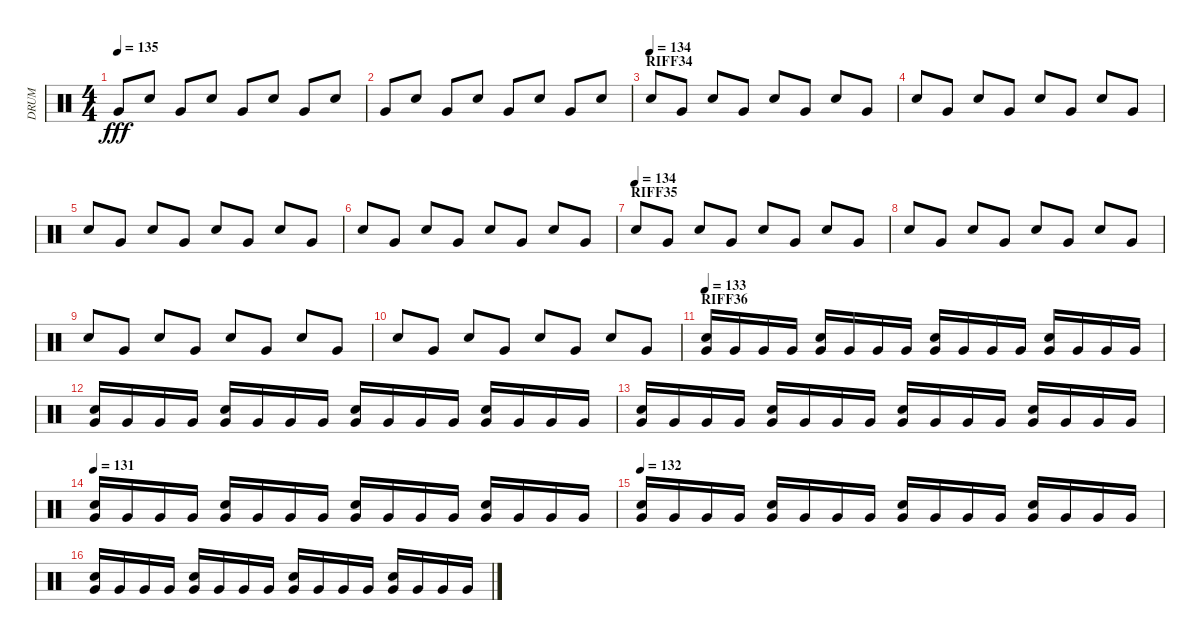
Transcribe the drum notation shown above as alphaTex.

\track ("DRUM" "DRUM") {instrument percussion}
\staff {score}
\articulation defaults
\ts (4 4)
\tempo 135
\clef neutral
\ks c "Very Low Tom (hit)".8{dy fff} "Electric Snare (hit)".8 "Very Low Tom (hit)".8 "Electric Snare (hit)".8 "Very Low Tom (hit)".8 "Electric Snare (hit)".8 "Very Low Tom (hit)".8 "Electric Snare (hit)".8
|
"Very Low Tom (hit)".8 "Electric Snare (hit)".8 "Very Low Tom (hit)".8 "Electric Snare (hit)".8 "Very Low Tom (hit)".8 "Electric Snare (hit)".8 "Very Low Tom (hit)".8 "Electric Snare (hit)".8 |
\section ("" "RIFF34")
\tempo (134)
"Electric Snare (hit)".8 "Very Low Tom (hit)".8 "Electric Snare (hit)".8 "Very Low Tom (hit)".8 "Electric Snare (hit)".8 "Very Low Tom (hit)".8 "Electric Snare (hit)".8 "Very Low Tom (hit)".8 |
"Electric Snare (hit)".8 "Very Low Tom (hit)".8 "Electric Snare (hit)".8 "Very Low Tom (hit)".8 "Electric Snare (hit)".8 "Very Low Tom (hit)".8 "Electric Snare (hit)".8 "Very Low Tom (hit)".8 |
"Electric Snare (hit)".8 "Very Low Tom (hit)".8 "Electric Snare (hit)".8 "Very Low Tom (hit)".8 "Electric Snare (hit)".8 "Very Low Tom (hit)".8 "Electric Snare (hit)".8 "Very Low Tom (hit)".8 |
"Electric Snare (hit)".8 "Very Low Tom (hit)".8 "Electric Snare (hit)".8 "Very Low Tom (hit)".8 "Electric Snare (hit)".8 "Very Low Tom (hit)".8 "Electric Snare (hit)".8 "Very Low Tom (hit)".8 |
\section ("" "RIFF35")
\tempo (134)
"Electric Snare (hit)".8 "Very Low Tom (hit)".8 "Electric Snare (hit)".8 "Very Low Tom (hit)".8 "Electric Snare (hit)".8 "Very Low Tom (hit)".8 "Electric Snare (hit)".8 "Very Low Tom (hit)".8 |
"Electric Snare (hit)".8 "Very Low Tom (hit)".8 "Electric Snare (hit)".8 "Very Low Tom (hit)".8 "Electric Snare (hit)".8 "Very Low Tom (hit)".8 "Electric Snare (hit)".8 "Very Low Tom (hit)".8 |
"Electric Snare (hit)".8 "Very Low Tom (hit)".8 "Electric Snare (hit)".8 "Very Low Tom (hit)".8 "Electric Snare (hit)".8 "Very Low Tom (hit)".8 "Electric Snare (hit)".8 "Very Low Tom (hit)".8 |
"Electric Snare (hit)".8 "Very Low Tom (hit)".8 "Electric Snare (hit)".8 "Very Low Tom (hit)".8 "Electric Snare (hit)".8 "Very Low Tom (hit)".8 "Electric Snare (hit)".8 "Very Low Tom (hit)".8 |
\section ("" "RIFF36")
\tempo 133
("Very Low Tom (hit)" "Electric Snare (hit)").16 "Very Low Tom (hit)".16 "Very Low Tom (hit)".16 "Very Low Tom (hit)".16 ("Very Low Tom (hit)" "Electric Snare (hit)").16 "Very Low Tom (hit)".16 "Very Low Tom (hit)".16 "Very Low Tom (hit)".16 ("Very Low Tom (hit)" "Electric Snare (hit)").16 "Very Low Tom (hit)".16 "Very Low Tom (hit)".16 "Very Low Tom (hit)".16 ("Very Low Tom (hit)" "Electric Snare (hit)").16 "Very Low Tom (hit)".16 "Very Low Tom (hit)".16 "Very Low Tom (hit)".16 |
("Very Low Tom (hit)" "Electric Snare (hit)").16 "Very Low Tom (hit)".16 "Very Low Tom (hit)".16 "Very Low Tom (hit)".16 ("Very Low Tom (hit)" "Electric Snare (hit)").16 "Very Low Tom (hit)".16 "Very Low Tom (hit)".16 "Very Low Tom (hit)".16 ("Very Low Tom (hit)" "Electric Snare (hit)").16 "Very Low Tom (hit)".16 "Very Low Tom (hit)".16 "Very Low Tom (hit)".16 ("Very Low Tom (hit)" "Electric Snare (hit)").16 "Very Low Tom (hit)".16 "Very Low Tom (hit)".16 "Very Low Tom (hit)".16 |
("Very Low Tom (hit)" "Electric Snare (hit)").16 "Very Low Tom (hit)".16 "Very Low Tom (hit)".16 "Very Low Tom (hit)".16 ("Very Low Tom (hit)" "Electric Snare (hit)").16 "Very Low Tom (hit)".16 "Very Low Tom (hit)".16 "Very Low Tom (hit)".16 ("Very Low Tom (hit)" "Electric Snare (hit)").16 "Very Low Tom (hit)".16 "Very Low Tom (hit)".16 "Very Low Tom (hit)".16 ("Very Low Tom (hit)" "Electric Snare (hit)").16 "Very Low Tom (hit)".16 "Very Low Tom (hit)".16 "Very Low Tom (hit)".16 |
\tempo 131
("Very Low Tom (hit)" "Electric Snare (hit)").16 "Very Low Tom (hit)".16 "Very Low Tom (hit)".16 "Very Low Tom (hit)".16 ("Very Low Tom (hit)" "Electric Snare (hit)").16 "Very Low Tom (hit)".16 "Very Low Tom (hit)".16 "Very Low Tom (hit)".16 ("Very Low Tom (hit)" "Electric Snare (hit)").16 "Very Low Tom (hit)".16 "Very Low Tom (hit)".16 "Very Low Tom (hit)".16 ("Very Low Tom (hit)" "Electric Snare (hit)").16 "Very Low Tom (hit)".16 "Very Low Tom (hit)".16 "Very Low Tom (hit)".16 |
\tempo 132
("Very Low Tom (hit)" "Electric Snare (hit)").16 "Very Low Tom (hit)".16 "Very Low Tom (hit)".16 "Very Low Tom (hit)".16 ("Very Low Tom (hit)" "Electric Snare (hit)").16 "Very Low Tom (hit)".16 "Very Low Tom (hit)".16 "Very Low Tom (hit)".16 ("Very Low Tom (hit)" "Electric Snare (hit)").16 "Very Low Tom (hit)".16 "Very Low Tom (hit)".16 "Very Low Tom (hit)".16 ("Very Low Tom (hit)" "Electric Snare (hit)").16 "Very Low Tom (hit)".16 "Very Low Tom (hit)".16 "Very Low Tom (hit)".16 |
("Very Low Tom (hit)" "Electric Snare (hit)").16 "Very Low Tom (hit)".16 "Very Low Tom (hit)".16 "Very Low Tom (hit)".16 ("Very Low Tom (hit)" "Electric Snare (hit)").16 "Very Low Tom (hit)".16 "Very Low Tom (hit)".16 "Very Low Tom (hit)".16 ("Very Low Tom (hit)" "Electric Snare (hit)").16 "Very Low Tom (hit)".16 "Very Low Tom (hit)".16 "Very Low Tom (hit)".16 ("Very Low Tom (hit)" "Electric Snare (hit)").16 "Very Low Tom (hit)".16 "Very Low Tom (hit)".16 "Very Low Tom (hit)".16
